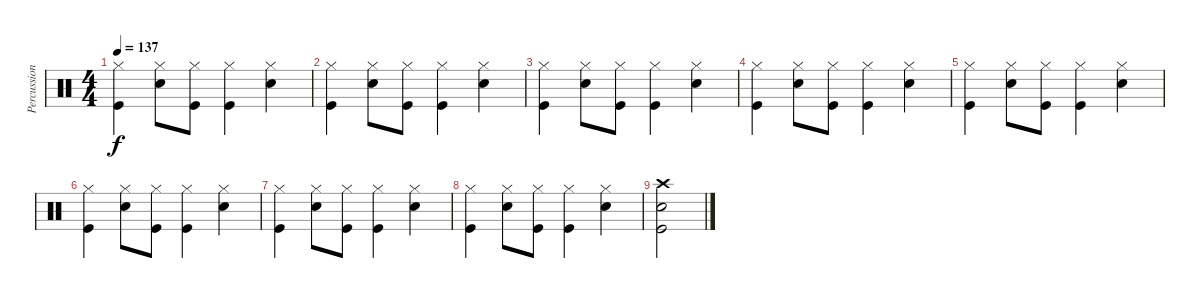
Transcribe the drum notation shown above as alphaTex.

\track ("Percussion" "Percussion") {instrument percussion}
\staff {score}
\articulation defaults
\ts (4 4)
\tempo 137
\clef neutral
\ks c
("Hi-Hat (closed)" "Kick (hit)").4{dy f} ("Hi-Hat (closed)" "Snare (hit) 2").8 ("Hi-Hat (closed)" "Kick (hit)").8 ("Hi-Hat (closed)" "Kick (hit)").4 ("Hi-Hat (closed)" "Snare (hit) 2").4 |
("Hi-Hat (closed)" "Kick (hit)").4 ("Hi-Hat (closed)" "Snare (hit) 2").8 ("Hi-Hat (closed)" "Kick (hit)").8 ("Hi-Hat (closed)" "Kick (hit)").4 ("Hi-Hat (closed)" "Snare (hit) 2").4 |
("Hi-Hat (closed)" "Kick (hit)").4 ("Hi-Hat (closed)" "Snare (hit) 2").8 ("Hi-Hat (closed)" "Kick (hit)").8 ("Hi-Hat (closed)" "Kick (hit)").4 ("Hi-Hat (closed)" "Snare (hit) 2").4 |
("Hi-Hat (closed)" "Kick (hit)").4 ("Hi-Hat (closed)" "Snare (hit) 2").8 ("Hi-Hat (closed)" "Kick (hit)").8 ("Hi-Hat (closed)" "Kick (hit)").4 ("Hi-Hat (closed)" "Snare (hit) 2").4 |
("Hi-Hat (closed)" "Kick (hit)").4 ("Hi-Hat (closed)" "Snare (hit) 2").8 ("Hi-Hat (closed)" "Kick (hit)").8 ("Hi-Hat (closed)" "Kick (hit)").4 ("Hi-Hat (closed)" "Snare (hit) 2").4 |
("Hi-Hat (closed)" "Kick (hit)").4 ("Hi-Hat (closed)" "Snare (hit) 2").8 ("Hi-Hat (closed)" "Kick (hit)").8 ("Hi-Hat (closed)" "Kick (hit)").4 ("Hi-Hat (closed)" "Snare (hit) 2").4 |
("Hi-Hat (closed)" "Kick (hit)").4 ("Hi-Hat (closed)" "Snare (hit) 2").8 ("Hi-Hat (closed)" "Kick (hit)").8 ("Hi-Hat (closed)" "Kick (hit)").4 ("Hi-Hat (closed)" "Snare (hit) 2").4 |
("Hi-Hat (closed)" "Kick (hit)").4 ("Hi-Hat (closed)" "Snare (hit) 2").8 ("Hi-Hat (closed)" "Kick (hit)").8 ("Hi-Hat (closed)" "Kick (hit)").4 ("Hi-Hat (closed)" "Snare (hit) 2").4 |
("Crash high (hit)" "Snare (hit) 2" "Kick (hit)").2
